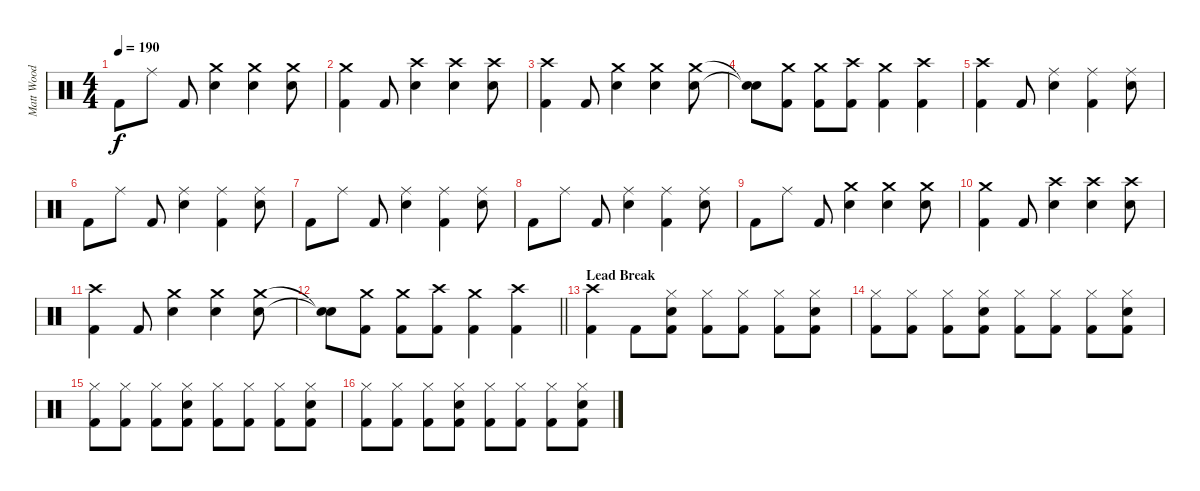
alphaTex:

\track ("Matt Wood" "Matt Wood") {instrument percussion}
\staff {score}
\articulation defaults
\ts (4 4)
\tempo 190
\clef neutral
\ks c "Kick (hit) 2".8{dy f} "Ride (middle)".8 "Kick (hit) 2".8
("Crash medium (hit)" "Snare (hit) 2").4 ("Crash medium (hit)" "Snare (hit) 2").4 ("Crash medium (hit)" "Snare (hit) 2").8 |
("Crash medium (hit)" "Kick (hit) 2").4 "Kick (hit) 2".8 ("Crash high (hit)" "Snare (hit) 2").4 ("Crash high (hit)" "Snare (hit) 2").4 ("Crash high (hit)" "Snare (hit) 2").8 |
("Crash high (hit)" "Kick (hit) 2").4 "Kick (hit) 2".8 ("Crash medium (hit)" "Snare (hit) 2").4 ("Crash medium (hit)" "Snare (hit) 2").4 ("Crash medium (hit)" "Snare (hit) 2").8 |
("Snare (hit)"{t} "Snare (hit)"{t}).8 ("Crash medium (hit)" "Kick (hit) 2").8 ("Crash medium (hit)" "Kick (hit) 2").8 ("Crash high (hit)" "Kick (hit) 2").8 ("Crash medium (hit)" "Kick (hit) 2").4 ("Crash high (hit)" "Kick (hit) 2").4 |
("Crash high (hit)" "Kick (hit) 2").4 "Kick (hit) 2".8 ("Ride (middle)" "Snare (hit) 2").4 ("Ride (middle)" "Kick (hit) 2").4 ("Ride (middle)" "Snare (hit) 2").8 |
"Kick (hit) 2".8 "Ride (middle)".8 "Kick (hit) 2".8 ("Ride (middle)" "Snare (hit) 2").4 ("Ride (middle)" "Kick (hit) 2").4 ("Ride (middle)" "Snare (hit) 2").8 |
"Kick (hit) 2".8 "Ride (middle)".8 "Kick (hit) 2".8 ("Ride (middle)" "Snare (hit) 2").4 ("Ride (middle)" "Kick (hit) 2").4 ("Ride (middle)" "Snare (hit) 2").8 |
"Kick (hit) 2".8 "Ride (middle)".8 "Kick (hit) 2".8 ("Ride (middle)" "Snare (hit) 2").4 ("Ride (middle)" "Kick (hit) 2").4 ("Ride (middle)" "Snare (hit) 2").8 |
"Kick (hit) 2".8 "Ride (middle)".8 "Kick (hit) 2".8 ("Crash medium (hit)" "Snare (hit) 2").4 ("Crash medium (hit)" "Snare (hit) 2").4 ("Crash medium (hit)" "Snare (hit) 2").8 |
("Crash medium (hit)" "Kick (hit) 2").4 "Kick (hit) 2".8 ("Crash high (hit)" "Snare (hit) 2").4 ("Crash high (hit)" "Snare (hit) 2").4 ("Crash high (hit)" "Snare (hit) 2").8 |
("Crash high (hit)" "Kick (hit) 2").4 "Kick (hit) 2".8 ("Crash medium (hit)" "Snare (hit) 2").4 ("Crash medium (hit)" "Snare (hit) 2").4 ("Crash medium (hit)" "Snare (hit) 2").8 |
\barLineRight lightlight
("Snare (hit)"{t} "Snare (hit)"{t}).8 ("Crash medium (hit)" "Kick (hit) 2").8 ("Crash medium (hit)" "Kick (hit) 2").8 ("Crash high (hit)" "Kick (hit) 2").8 ("Crash medium (hit)" "Kick (hit) 2").4 ("Crash high (hit)" "Kick (hit) 2").4 |
\section ("" "Lead Break")
("Crash high (hit)" "Kick (hit) 2").4 "Kick (hit) 2".8 ("Hi-Hat (closed)" "Snare (hit) 2" "Kick (hit) 2").8 ("Hi-Hat (closed)" "Kick (hit) 2").8 ("Hi-Hat (closed)" "Kick (hit) 2").8 ("Hi-Hat (closed)" "Kick (hit) 2").8 ("Hi-Hat (closed)" "Snare (hit) 2" "Kick (hit) 2").8 |
("Hi-Hat (closed)" "Kick (hit) 2").8 ("Hi-Hat (closed)" "Kick (hit) 2").8 ("Hi-Hat (closed)" "Kick (hit) 2").8 ("Hi-Hat (closed)" "Snare (hit) 2" "Kick (hit) 2").8 ("Hi-Hat (closed)" "Kick (hit) 2").8 ("Hi-Hat (closed)" "Kick (hit) 2").8 ("Hi-Hat (closed)" "Kick (hit) 2").8 ("Hi-Hat (closed)" "Snare (hit) 2" "Kick (hit) 2").8 |
("Hi-Hat (closed)" "Kick (hit) 2").8 ("Hi-Hat (closed)" "Kick (hit) 2").8 ("Hi-Hat (closed)" "Kick (hit) 2").8 ("Hi-Hat (closed)" "Snare (hit) 2" "Kick (hit) 2").8 ("Hi-Hat (closed)" "Kick (hit) 2").8 ("Hi-Hat (closed)" "Kick (hit) 2").8 ("Hi-Hat (closed)" "Kick (hit) 2").8 ("Hi-Hat (closed)" "Snare (hit) 2" "Kick (hit) 2").8 |
("Hi-Hat (closed)" "Kick (hit) 2").8 ("Hi-Hat (closed)" "Kick (hit) 2").8 ("Hi-Hat (closed)" "Kick (hit) 2").8 ("Hi-Hat (closed)" "Snare (hit) 2" "Kick (hit) 2").8 ("Hi-Hat (closed)" "Kick (hit) 2").8 ("Hi-Hat (closed)" "Kick (hit) 2").8 ("Hi-Hat (closed)" "Kick (hit) 2").8 ("Hi-Hat (closed)" "Snare (hit) 2" "Kick (hit) 2").8
